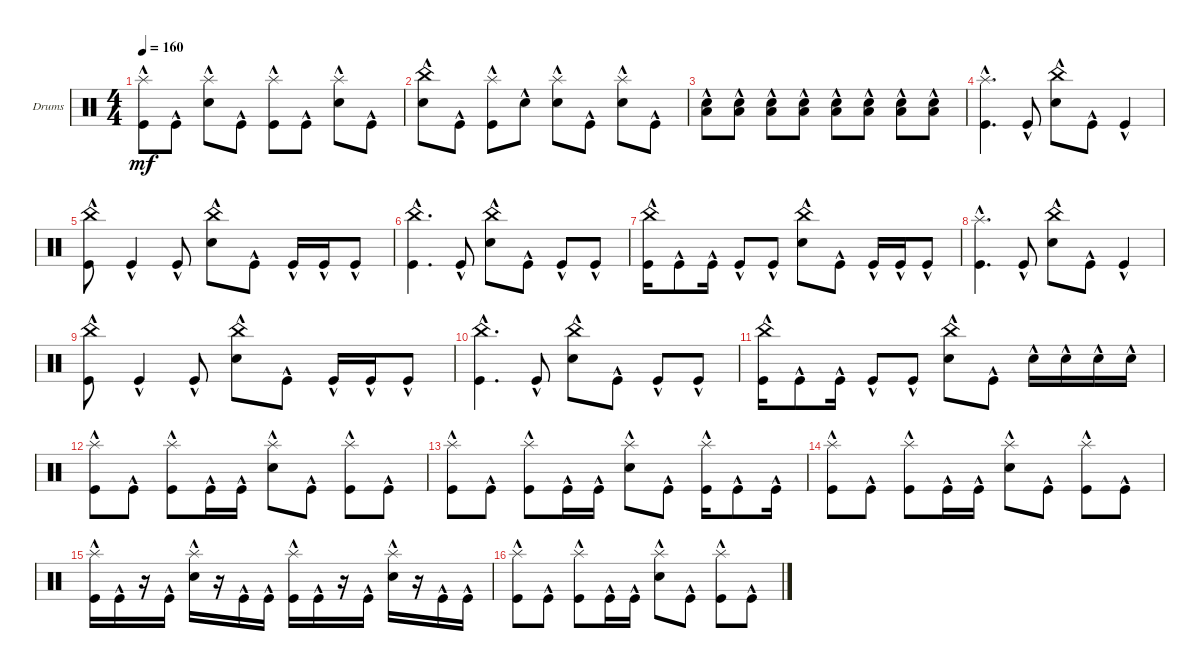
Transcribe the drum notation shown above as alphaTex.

\defaultSystemsLayout 4
\bracketExtendMode groupsimilarinstruments
\firstSystemTrackNameOrientation horizontal
\otherSystemsTrackNameOrientation horizontal
\track ("Drums" "Drums") {instrument percussion}
\staff {score}
\articulation defaults
\ts (4 4)
\tempo 160
\clef neutral
\ks c
("Kick (hit)"{hac} "Splash (hit)"{hac}).8{dy mf} "Kick (hit)"{hac}.8 ("Snare (hit) 2"{hac} "Splash (hit)"{hac}).8 "Kick (hit)"{hac}.8 ("Kick (hit)"{hac} "Splash (hit)"{hac}).8 "Kick (hit)"{hac}.8 ("Snare (hit) 2"{hac} "Splash (hit)"{hac}).8 "Kick (hit)"{hac}.8 |
("Snare (hit) 2"{hac} "China (hit)"{hac}).8 "Kick (hit)"{hac}.8 ("Kick (hit)"{hac} "Splash (hit)"{hac}).8 "Snare (hit) 2"{hac}.8 ("Snare (hit) 2"{hac} "Splash (hit)"{hac}).8 "Kick (hit)"{hac}.8 ("Snare (hit) 2"{hac} "Splash (hit)"{hac}).8 "Kick (hit)"{hac}.8 |
("Snare (hit) 2"{hac} "Low Tom (hit)"{hac}).8 ("Snare (hit) 2"{hac} "Low Tom (hit)"{hac}).8 ("Snare (hit) 2"{hac} "Low Tom (hit)"{hac}).8 ("Snare (hit) 2"{hac} "Low Tom (hit)"{hac}).8 ("Snare (hit) 2"{hac} "Low Tom (hit)"{hac}).8 ("Snare (hit) 2"{hac} "Low Tom (hit)"{hac}).8 ("Snare (hit) 2"{hac} "Low Tom (hit)"{hac}).8 ("Snare (hit) 2"{hac} "Low Tom (hit)"{hac}).8 |
("Kick (hit)"{hac} "Splash (hit)"{hac}).4{d} "Kick (hit)"{hac}.8 ("Snare (hit) 2"{hac} "China (hit)"{hac}).8 "Kick (hit)"{hac}.8 "Kick (hit)"{hac}.4 |
("Kick (hit)"{hac} "China (hit)"{hac}).8 "Kick (hit)"{hac}.4 "Kick (hit)"{hac}.8 ("Snare (hit) 2"{hac} "China (hit)"{hac}).8 "Kick (hit)"{hac}.8 "Kick (hit)"{hac}.16 "Kick (hit)"{hac}.16 "Kick (hit)"{hac}.8 |
("Kick (hit)"{hac} "China (hit)"{hac}).4{d} "Kick (hit)"{hac}.8 ("Snare (hit) 2"{hac} "China (hit)"{hac}).8 "Kick (hit)"{hac}.8 "Kick (hit)"{hac}.8 "Kick (hit)"{hac}.8 |
("Kick (hit)"{hac} "China (hit)"{hac}).16 "Kick (hit)"{hac}.8 "Kick (hit)"{hac}.16 "Kick (hit)"{hac}.8 "Kick (hit)"{hac}.8 ("Snare (hit) 2"{hac} "China (hit)"{hac}).8 "Kick (hit)"{hac}.8 "Kick (hit)"{hac}.16 "Kick (hit)"{hac}.16 "Kick (hit)"{hac}.8 |
("Kick (hit)"{hac} "Splash (hit)"{hac}).4{d} "Kick (hit)"{hac}.8 ("Snare (hit) 2"{hac} "China (hit)"{hac}).8 "Kick (hit)"{hac}.8 "Kick (hit)"{hac}.4 |
("Kick (hit)"{hac} "China (hit)"{hac}).8 "Kick (hit)"{hac}.4 "Kick (hit)"{hac}.8 ("Snare (hit) 2"{hac} "China (hit)"{hac}).8 "Kick (hit)"{hac}.8 "Kick (hit)"{hac}.16 "Kick (hit)"{hac}.16 "Kick (hit)"{hac}.8 |
("Kick (hit)"{hac} "China (hit)"{hac}).4{d} "Kick (hit)"{hac}.8 ("Snare (hit) 2"{hac} "China (hit)"{hac}).8 "Kick (hit)"{hac}.8 "Kick (hit)"{hac}.8 "Kick (hit)"{hac}.8 |
("Kick (hit)"{hac} "China (hit)"{hac}).16 "Kick (hit)"{hac}.8 "Kick (hit)"{hac}.16 "Kick (hit)"{hac}.8 "Kick (hit)"{hac}.8 ("Snare (hit) 2"{hac} "China (hit)"{hac}).8 "Kick (hit)"{hac}.8 "Snare (hit) 2"{hac}.16 "Snare (hit) 2"{hac}.16 "Snare (hit) 2"{hac}.16 "Snare (hit) 2"{hac}.16 |
("Kick (hit)"{hac} "Splash (hit)"{hac}).8 "Kick (hit)"{hac}.8 ("Kick (hit)"{hac} "Splash (hit)"{hac}).8 "Kick (hit)"{hac}.16 "Kick (hit)"{hac}.16 ("Snare (hit) 2"{hac} "Splash (hit)"{hac}).8 "Kick (hit)"{hac}.8 ("Kick (hit)"{hac} "Splash (hit)"{hac}).8 "Kick (hit)"{hac}.8 |
("Kick (hit)"{hac} "Splash (hit)"{hac}).8 "Kick (hit)"{hac}.8 ("Kick (hit)"{hac} "Splash (hit)"{hac}).8 "Kick (hit)"{hac}.16 "Kick (hit)"{hac}.16 ("Snare (hit) 2"{hac} "Splash (hit)"{hac}).8 "Kick (hit)"{hac}.8 ("Kick (hit)"{hac} "Splash (hit)"{hac}).16 "Kick (hit)"{hac}.8 "Kick (hit)"{hac}.16 |
("Kick (hit)"{hac} "Splash (hit)"{hac}).8 "Kick (hit)"{hac}.8 ("Kick (hit)"{hac} "Splash (hit)"{hac}).8 "Kick (hit)"{hac}.16 "Kick (hit)"{hac}.16 ("Snare (hit) 2"{hac} "Splash (hit)"{hac}).8 "Kick (hit)"{hac}.8 ("Kick (hit)"{hac} "Splash (hit)"{hac}).8 "Kick (hit)"{hac}.8 |
("Kick (hit)"{hac} "Splash (hit)"{hac}).16 "Kick (hit)"{hac}.16 r.16 "Kick (hit)"{hac}.16 ("Snare (hit) 2"{hac} "Splash (hit)"{hac}).16 r.16 "Kick (hit)"{hac}.16 "Kick (hit)"{hac}.16 ("Kick (hit)"{hac} "Splash (hit)"{hac}).16 "Kick (hit)"{hac}.16 r.16 "Kick (hit)"{hac}.16 ("Snare (hit) 2"{hac} "Splash (hit)"{hac}).16 r.16 "Kick (hit)"{hac}.16 "Kick (hit)"{hac}.16 |
("Kick (hit)"{hac} "Splash (hit)"{hac}).8 "Kick (hit)"{hac}.8 ("Kick (hit)"{hac} "Splash (hit)"{hac}).8 "Kick (hit)"{hac}.16 "Kick (hit)"{hac}.16 ("Snare (hit) 2"{hac} "Splash (hit)"{hac}).8 "Kick (hit)"{hac}.8 ("Kick (hit)"{hac} "Splash (hit)"{hac}).8 "Kick (hit)"{hac}.8
